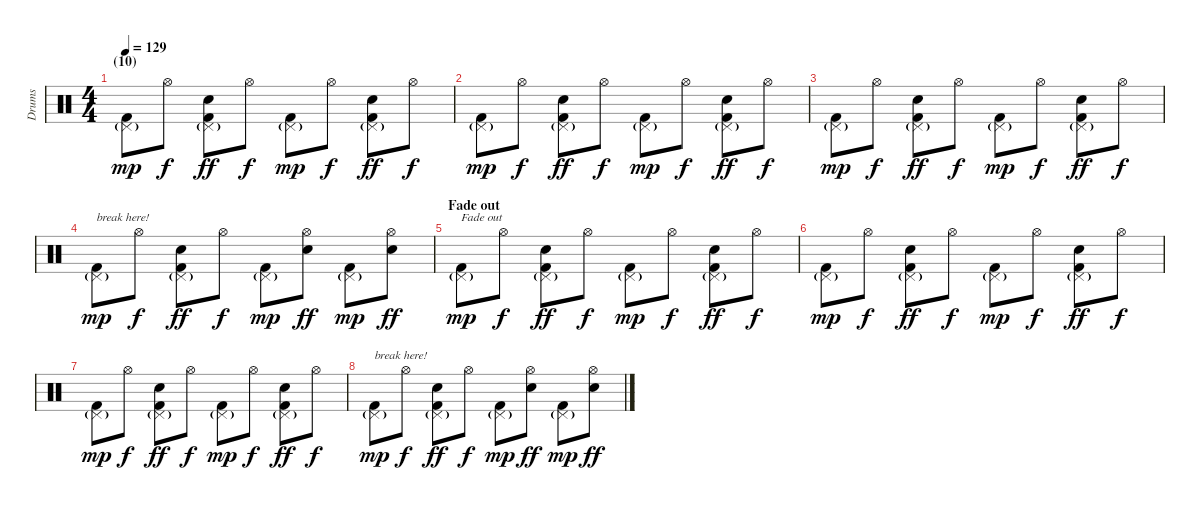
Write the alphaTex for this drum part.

\track ("Drums" "Drums") {instrument percussion}
\staff {score}
\articulation defaults
\ts (4 4)
\section ("" "(10)")
\tempo 129
\clef neutral
\ks c
("Pedal Hi-Hat (hit)"{g} "Kick (hit) 2").8{dy mp} "Hi-Hat (open)".8{dy f} ("Pedal Hi-Hat (hit)"{g} "Electric Snare (hit)" "Kick (hit) 2").8{dy ff} "Hi-Hat (open)".8{dy f} ("Pedal Hi-Hat (hit)"{g} "Kick (hit) 2").8{dy mp} "Hi-Hat (open)".8{dy f} ("Pedal Hi-Hat (hit)"{g} "Electric Snare (hit)" "Kick (hit) 2").8{dy ff} "Hi-Hat (open)".8{dy f} |
("Pedal Hi-Hat (hit)"{g} "Kick (hit) 2").8{dy mp} "Hi-Hat (open)".8{dy f} ("Pedal Hi-Hat (hit)"{g} "Electric Snare (hit)" "Kick (hit) 2").8{dy ff} "Hi-Hat (open)".8{dy f} ("Pedal Hi-Hat (hit)"{g} "Kick (hit) 2").8{dy mp} "Hi-Hat (open)".8{dy f} ("Pedal Hi-Hat (hit)"{g} "Electric Snare (hit)" "Kick (hit) 2").8{dy ff} "Hi-Hat (open)".8{dy f} |
("Pedal Hi-Hat (hit)"{g} "Kick (hit) 2").8{dy mp} "Hi-Hat (open)".8{dy f} ("Pedal Hi-Hat (hit)"{g} "Electric Snare (hit)" "Kick (hit) 2").8{dy ff} "Hi-Hat (open)".8{dy f} ("Pedal Hi-Hat (hit)"{g} "Kick (hit) 2").8{dy mp} "Hi-Hat (open)".8{dy f} ("Pedal Hi-Hat (hit)"{g} "Electric Snare (hit)" "Kick (hit) 2").8{dy ff} "Hi-Hat (open)".8{dy f} |
("Pedal Hi-Hat (hit)"{g} "Kick (hit) 2").8{txt "break here!" dy mp} "Hi-Hat (open)".8{dy f} ("Pedal Hi-Hat (hit)"{g} "Electric Snare (hit)" "Kick (hit) 2").8{dy ff} "Hi-Hat (open)".8{dy f} ("Pedal Hi-Hat (hit)"{g} "Kick (hit) 2").8{dy mp} ("Hi-Hat (open)" "Electric Snare (hit)").8{dy ff} ("Pedal Hi-Hat (hit)"{g} "Kick (hit) 2").8{dy mp} ("Hi-Hat (open)" "Electric Snare (hit)").8{dy ff} |
\section ("" "Fade out")
("Pedal Hi-Hat (hit)"{g} "Kick (hit) 2").8{txt "Fade out" dy mp volume 0} "Hi-Hat (open)".8{dy f} ("Pedal Hi-Hat (hit)"{g} "Electric Snare (hit)" "Kick (hit) 2").8{dy ff} "Hi-Hat (open)".8{dy f} ("Pedal Hi-Hat (hit)"{g} "Kick (hit) 2").8{dy mp} "Hi-Hat (open)".8{dy f} ("Pedal Hi-Hat (hit)"{g} "Electric Snare (hit)" "Kick (hit) 2").8{dy ff} "Hi-Hat (open)".8{dy f} |
("Pedal Hi-Hat (hit)"{g} "Kick (hit) 2").8{dy mp} "Hi-Hat (open)".8{dy f} ("Pedal Hi-Hat (hit)"{g} "Electric Snare (hit)" "Kick (hit) 2").8{dy ff} "Hi-Hat (open)".8{dy f} ("Pedal Hi-Hat (hit)"{g} "Kick (hit) 2").8{dy mp} "Hi-Hat (open)".8{dy f} ("Pedal Hi-Hat (hit)"{g} "Electric Snare (hit)" "Kick (hit) 2").8{dy ff} "Hi-Hat (open)".8{dy f} |
("Pedal Hi-Hat (hit)"{g} "Kick (hit) 2").8{dy mp} "Hi-Hat (open)".8{dy f} ("Pedal Hi-Hat (hit)"{g} "Electric Snare (hit)" "Kick (hit) 2").8{dy ff} "Hi-Hat (open)".8{dy f} ("Pedal Hi-Hat (hit)"{g} "Kick (hit) 2").8{dy mp} "Hi-Hat (open)".8{dy f} ("Pedal Hi-Hat (hit)"{g} "Electric Snare (hit)" "Kick (hit) 2").8{dy ff} "Hi-Hat (open)".8{dy f} |
("Pedal Hi-Hat (hit)"{g} "Kick (hit) 2").8{txt "break here!" dy mp} "Hi-Hat (open)".8{dy f} ("Pedal Hi-Hat (hit)"{g} "Electric Snare (hit)" "Kick (hit) 2").8{dy ff} "Hi-Hat (open)".8{dy f} ("Pedal Hi-Hat (hit)"{g} "Kick (hit) 2").8{dy mp} ("Hi-Hat (open)" "Electric Snare (hit)").8{dy ff} ("Pedal Hi-Hat (hit)"{g} "Kick (hit) 2").8{dy mp} ("Hi-Hat (open)" "Electric Snare (hit)").8{dy ff}
